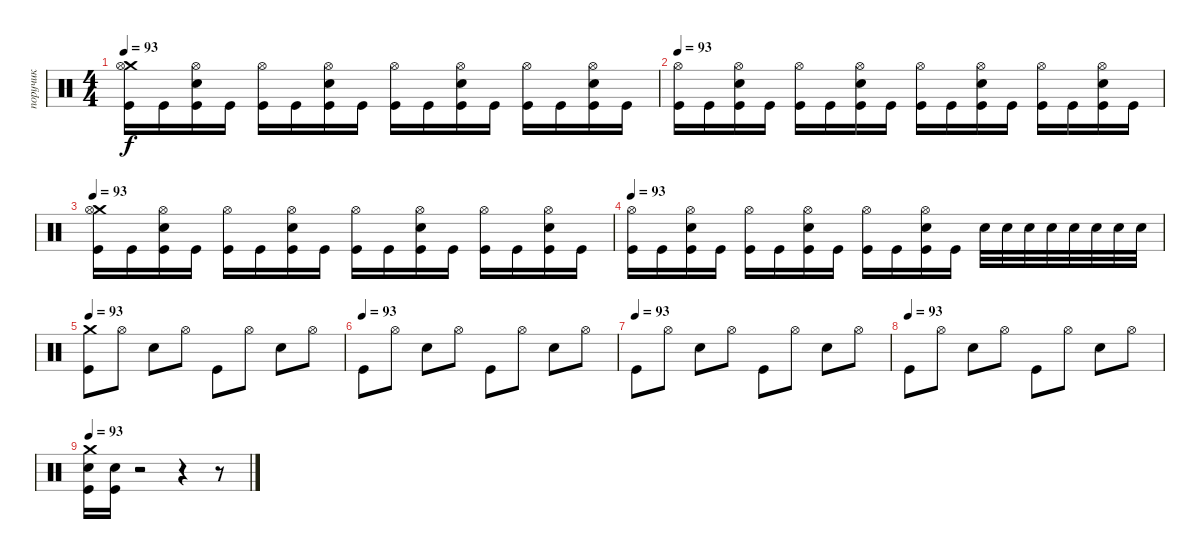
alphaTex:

\track ("поручик" "поручик") {instrument percussion}
\staff {score}
\articulation defaults
\ts (4 4)
\tempo 93
\clef neutral
\ks c
("Crash medium (hit)" "Kick (hit)" "Hi-Hat (open)").16{dy f} "Kick (hit)".16 ("Kick (hit)" "Hi-Hat (open)" "Electric Snare (hit)").16 "Kick (hit)".16 ("Kick (hit)" "Hi-Hat (open)").16 "Kick (hit)".16 ("Hi-Hat (open)" "Kick (hit)" "Electric Snare (hit)").16 "Kick (hit)".16 ("Hi-Hat (open)" "Kick (hit)").16 "Kick (hit)".16 ("Kick (hit)" "Hi-Hat (open)" "Electric Snare (hit)").16 "Kick (hit)".16 ("Hi-Hat (open)" "Kick (hit)").16 "Kick (hit)".16 ("Kick (hit)" "Electric Snare (hit)" "Hi-Hat (open)").16 "Kick (hit)".16 |
\tempo 93
("Kick (hit)" "Hi-Hat (open)").16 "Kick (hit)".16 ("Kick (hit)" "Hi-Hat (open)" "Electric Snare (hit)").16 "Kick (hit)".16 ("Kick (hit)" "Hi-Hat (open)").16 "Kick (hit)".16 ("Hi-Hat (open)" "Kick (hit)" "Electric Snare (hit)").16 "Kick (hit)".16 ("Hi-Hat (open)" "Kick (hit)").16 "Kick (hit)".16 ("Kick (hit)" "Hi-Hat (open)" "Electric Snare (hit)").16 "Kick (hit)".16 ("Hi-Hat (open)" "Kick (hit)").16 "Kick (hit)".16 ("Kick (hit)" "Electric Snare (hit)" "Hi-Hat (open)").16 "Kick (hit)".16 |
\tempo 93
("Crash medium (hit)" "Kick (hit)" "Hi-Hat (open)").16 "Kick (hit)".16 ("Kick (hit)" "Hi-Hat (open)" "Electric Snare (hit)").16 "Kick (hit)".16 ("Kick (hit)" "Hi-Hat (open)").16 "Kick (hit)".16 ("Hi-Hat (open)" "Kick (hit)" "Electric Snare (hit)").16 "Kick (hit)".16 ("Hi-Hat (open)" "Kick (hit)").16 "Kick (hit)".16 ("Kick (hit)" "Hi-Hat (open)" "Electric Snare (hit)").16 "Kick (hit)".16 ("Hi-Hat (open)" "Kick (hit)").16 "Kick (hit)".16 ("Kick (hit)" "Electric Snare (hit)" "Hi-Hat (open)").16 "Kick (hit)".16 |
\tempo 93
("Kick (hit)" "Hi-Hat (open)").16 "Kick (hit)".16 ("Kick (hit)" "Hi-Hat (open)" "Electric Snare (hit)").16 "Kick (hit)".16 ("Kick (hit)" "Hi-Hat (open)").16 "Kick (hit)".16 ("Hi-Hat (open)" "Kick (hit)" "Electric Snare (hit)").16 "Kick (hit)".16 ("Hi-Hat (open)" "Kick (hit)").16 "Kick (hit)".16 ("Kick (hit)" "Hi-Hat (open)" "Electric Snare (hit)").16 "Kick (hit)".16 "Electric Snare (hit)".32 "Electric Snare (hit)".32 "Electric Snare (hit)".32 "Electric Snare (hit)".32 "Electric Snare (hit)".32 "Electric Snare (hit)".32 "Electric Snare (hit)".32 "Electric Snare (hit)".32 |
\tempo 93
("Kick (hit)" "Crash medium (hit)").8 "Hi-Hat (open)".8 "Electric Snare (hit)".8 "Hi-Hat (open)".8 "Kick (hit)".8 "Hi-Hat (open)".8 "Electric Snare (hit)".8 "Hi-Hat (open)".8 |
\tempo (93)
"Kick (hit)".8 "Hi-Hat (open)".8 "Electric Snare (hit)".8 "Hi-Hat (open)".8 "Kick (hit)".8 "Hi-Hat (open)".8 "Electric Snare (hit)".8 "Hi-Hat (open)".8 |
\tempo (93)
"Kick (hit)".8 "Hi-Hat (open)".8 "Electric Snare (hit)".8 "Hi-Hat (open)".8 "Kick (hit)".8 "Hi-Hat (open)".8 "Electric Snare (hit)".8 "Hi-Hat (open)".8 |
\tempo (93)
"Kick (hit)".8 "Hi-Hat (open)".8 "Electric Snare (hit)".8 "Hi-Hat (open)".8 "Kick (hit)".8 "Hi-Hat (open)".8 "Electric Snare (hit)".8 "Hi-Hat (open)".8 |
\tempo 93
("Crash medium (hit)" "Kick (hit)" "Electric Snare (hit)").16 ("Kick (hit)" "Electric Snare (hit)").16 r.2 r.4 r.8
